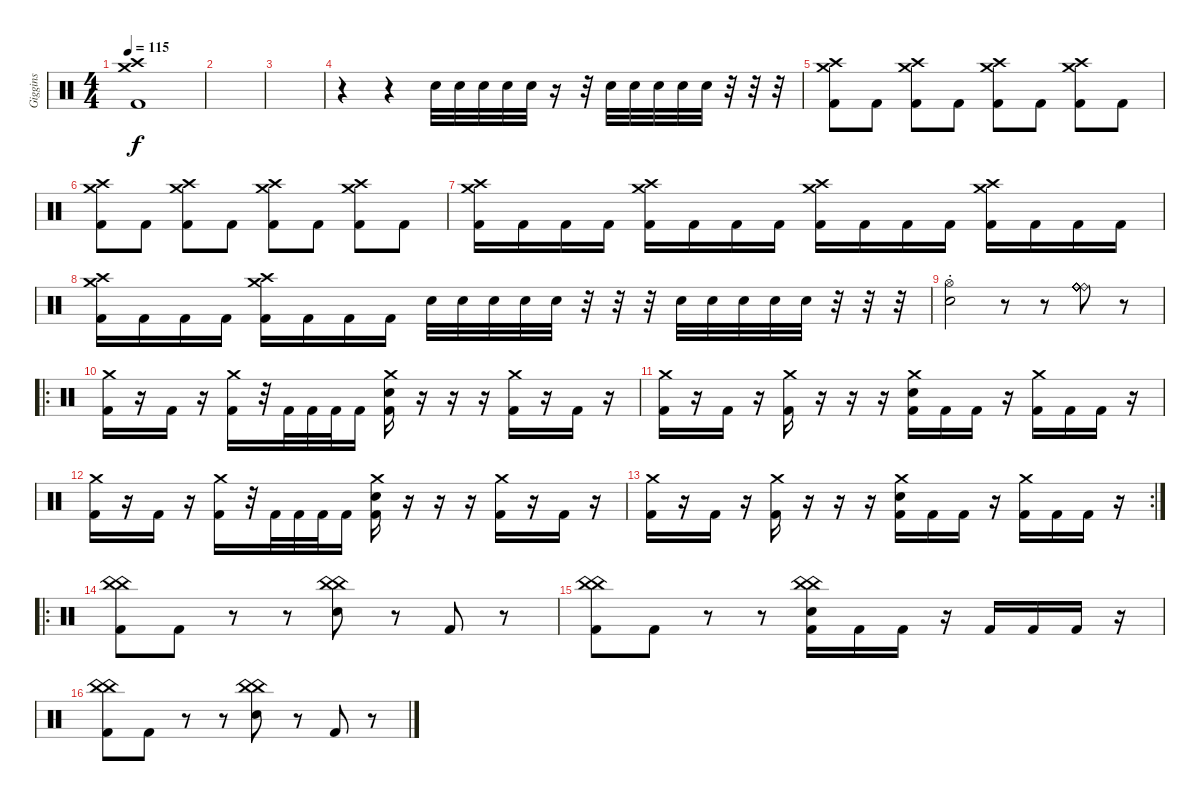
\track ("Giggins" "Giggins") {instrument percussion}
\staff {score}
\articulation defaults
\ts (4 4)
\tempo 115
\clef neutral
\ks c
("Crash medium (hit)" "Crash high (hit)" "Kick (hit) 2").1{dy f} |
|
|
r.4 r.4 "Snare (hit) 2".32 "Snare (hit) 2".32 "Snare (hit) 2".32 "Snare (hit) 2".32 "Snare (hit) 2".32 r.16 r.32 "Snare (hit) 2".32 "Snare (hit) 2".32 "Snare (hit) 2".32 "Snare (hit) 2".32 "Snare (hit) 2".32 r.32 r.32 r.32 |
("Crash high (hit)" "Crash medium (hit)" "Kick (hit) 2").8 "Kick (hit) 2".8 ("Crash high (hit)" "Crash medium (hit)" "Kick (hit) 2").8 "Kick (hit) 2".8 ("Crash high (hit)" "Crash medium (hit)" "Kick (hit) 2").8 "Kick (hit) 2".8 ("Crash high (hit)" "Crash medium (hit)" "Kick (hit) 2").8 "Kick (hit) 2".8 |
("Crash high (hit)" "Crash medium (hit)" "Kick (hit) 2").8 "Kick (hit) 2".8 ("Crash high (hit)" "Crash medium (hit)" "Kick (hit) 2").8 "Kick (hit) 2".8 ("Crash high (hit)" "Crash medium (hit)" "Kick (hit) 2").8 "Kick (hit) 2".8 ("Crash high (hit)" "Crash medium (hit)" "Kick (hit) 2").8 "Kick (hit) 2".8 |
("Crash high (hit)" "Crash medium (hit)" "Kick (hit) 2").16 "Kick (hit) 2".16 "Kick (hit) 2".16 "Kick (hit) 2".16 ("Crash high (hit)" "Crash medium (hit)" "Kick (hit) 2").16 "Kick (hit) 2".16 "Kick (hit) 2".16 "Kick (hit) 2".16 ("Crash high (hit)" "Crash medium (hit)" "Kick (hit) 2").16 "Kick (hit) 2".16 "Kick (hit) 2".16 "Kick (hit) 2".16 ("Crash high (hit)" "Crash medium (hit)" "Kick (hit) 2").16 "Kick (hit) 2".16 "Kick (hit) 2".16 "Kick (hit) 2".16 |
("Crash high (hit)" "Crash medium (hit)" "Kick (hit) 2").16 "Kick (hit) 2".16 "Kick (hit) 2".16 "Kick (hit) 2".16 ("Crash high (hit)" "Crash medium (hit)" "Kick (hit) 2").16 "Kick (hit) 2".16 "Kick (hit) 2".16 "Kick (hit) 2".16 "Snare (hit) 2".32 "Snare (hit) 2".32 "Snare (hit) 2".32 "Snare (hit) 2".32 "Snare (hit) 2".32 r.32 r.32 r.32 "Snare (hit) 2".32 "Snare (hit) 2".32 "Snare (hit) 2".32 "Snare (hit) 2".32 "Snare (hit) 2".32 r.32 r.32 r.32 |
("Hi-Hat (open)"{st} "Snare (hit) 2").2 r.8 r.8 ("Ride (bell)" "Ride (bell)" "Ride (bell)" "Ride (bell)" "Ride (bell)" "Ride (bell)").8 r.8 |
\ro
("Crash medium (hit)" "Kick (hit) 2").16 r.16 "Kick (hit) 2".16 r.16 ("Crash medium (hit)" "Kick (hit) 2").16 r.32 "Kick (hit) 2".32 "Kick (hit) 2".32 "Kick (hit) 2".32 "Kick (hit) 2".16 ("Crash medium (hit)" "Snare (hit) 2" "Kick (hit) 2").16 r.16 r.16 r.16 ("Crash medium (hit)" "Kick (hit) 2").16 r.16 "Kick (hit) 2".16 r.16 |
("Crash medium (hit)" "Kick (hit) 2").16 r.16 "Kick (hit) 2".16 r.16 ("Crash medium (hit)" "Kick (hit) 2").16 r.16 r.16 r.16 ("Crash medium (hit)" "Snare (hit) 2" "Kick (hit) 2").16 "Kick (hit) 2".16 "Kick (hit) 2".16 r.16 ("Crash medium (hit)" "Kick (hit) 2").16 "Kick (hit) 2".16 "Kick (hit) 2".16 r.16 |
("Crash medium (hit)" "Kick (hit) 2").16 r.16 "Kick (hit) 2".16 r.16 ("Crash medium (hit)" "Kick (hit) 2").16 r.32 "Kick (hit) 2".32 "Kick (hit) 2".32 "Kick (hit) 2".32 "Kick (hit) 2".16 ("Crash medium (hit)" "Snare (hit) 2" "Kick (hit) 2").16 r.16 r.16 r.16 ("Crash medium (hit)" "Kick (hit) 2").16 r.16 "Kick (hit) 2".16 r.16 |
\rc 2
("Crash medium (hit)" "Kick (hit) 2").16 r.16 "Kick (hit) 2".16 r.16 ("Crash medium (hit)" "Kick (hit) 2").16 r.16 r.16 r.16 ("Crash medium (hit)" "Snare (hit) 2" "Kick (hit) 2").16 "Kick (hit) 2".16 "Kick (hit) 2".16 r.16 ("Crash medium (hit)" "Kick (hit) 2").16 "Kick (hit) 2".16 "Kick (hit) 2".16 r.16 |
\ro
("China (hit)" "China (hit)" "Kick (hit) 2").8 "Kick (hit) 2".8 r.8 r.8 ("China (hit)" "China (hit)" "Snare (hit) 2").8 r.8 "Kick (hit) 2".8 r.8 |
("China (hit)" "China (hit)" "Kick (hit) 2").8 "Kick (hit) 2".8 r.8 r.8 ("Snare (hit) 2" "China (hit)" "China (hit)" "Kick (hit) 2").16 "Kick (hit) 2".16 "Kick (hit) 2".16 r.16 "Kick (hit) 2".16 "Kick (hit) 2".16 "Kick (hit) 2".16 r.16 |
("China (hit)" "China (hit)" "Kick (hit) 2").8 "Kick (hit) 2".8 r.8 r.8 ("China (hit)" "China (hit)" "Snare (hit) 2").8 r.8 "Kick (hit) 2".8 r.8
